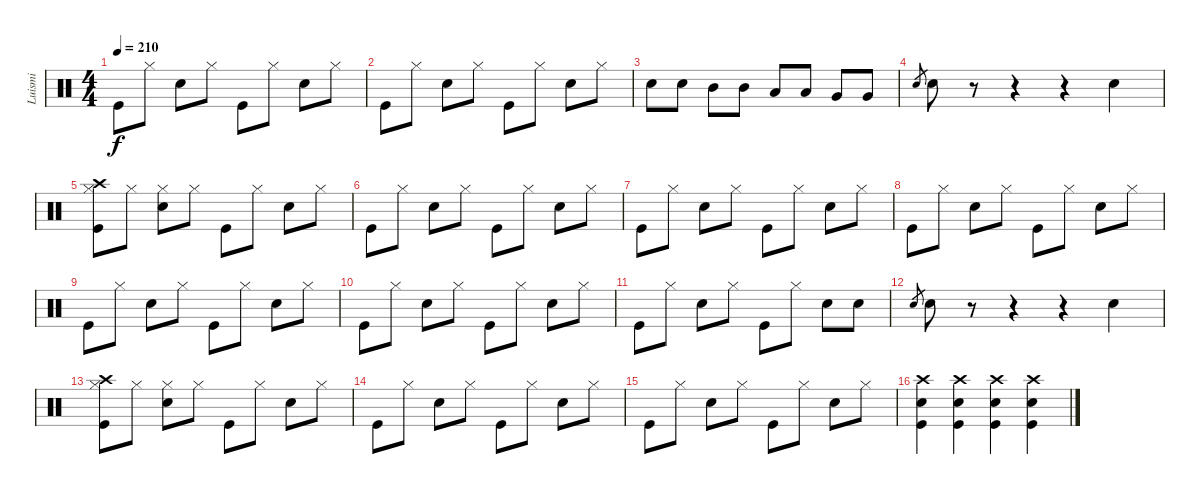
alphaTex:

\track ("Luismi" "Luismi") {instrument percussion}
\staff {score}
\articulation defaults
\ts (4 4)
\tempo 210
\clef neutral
\ks c "Kick (hit)".8{dy f} "Hi-Hat (closed)".8 "Snare (hit) 2".8 "Hi-Hat (closed)".8 "Kick (hit)".8 "Hi-Hat (closed)".8 "Snare (hit) 2".8 "Hi-Hat (closed)".8
|
"Kick (hit)".8 "Hi-Hat (closed)".8 "Snare (hit) 2".8 "Hi-Hat (closed)".8 "Kick (hit)".8 "Hi-Hat (closed)".8 "Snare (hit) 2".8 "Hi-Hat (closed)".8 |
"Snare (hit) 2".8 "Snare (hit) 2".8 "Mid Tom (hit)".8 "Mid Tom (hit)".8 "Low Tom (hit)".8 "Low Tom (hit)".8 "Very Low Tom (hit)".8 "Very Low Tom (hit)".8 |
"Snare (hit) 2".8{gr} "Snare (hit) 2".8 r.8 r.4 r.4 "Snare (hit) 2".4 |
("Kick (hit)" "Crash high (hit)" "Hi-Hat (closed)").8 "Hi-Hat (closed)".8 ("Snare (hit) 2" "Hi-Hat (closed)").8 "Hi-Hat (closed)".8 "Kick (hit)".8 "Hi-Hat (closed)".8 "Snare (hit) 2".8 "Hi-Hat (closed)".8 |
"Kick (hit)".8 "Hi-Hat (closed)".8 "Snare (hit) 2".8 "Hi-Hat (closed)".8 "Kick (hit)".8 "Hi-Hat (closed)".8 "Snare (hit) 2".8 "Hi-Hat (closed)".8 |
"Kick (hit)".8 "Hi-Hat (closed)".8 "Snare (hit) 2".8 "Hi-Hat (closed)".8 "Kick (hit)".8 "Hi-Hat (closed)".8 "Snare (hit) 2".8 "Hi-Hat (closed)".8 |
"Kick (hit)".8 "Hi-Hat (closed)".8 "Snare (hit) 2".8 "Hi-Hat (closed)".8 "Kick (hit)".8 "Hi-Hat (closed)".8 "Snare (hit) 2".8 "Hi-Hat (closed)".8 |
"Kick (hit)".8 "Hi-Hat (closed)".8 "Snare (hit) 2".8 "Hi-Hat (closed)".8 "Kick (hit)".8 "Hi-Hat (closed)".8 "Snare (hit) 2".8 "Hi-Hat (closed)".8 |
"Kick (hit)".8 "Hi-Hat (closed)".8 "Snare (hit) 2".8 "Hi-Hat (closed)".8 "Kick (hit)".8 "Hi-Hat (closed)".8 "Snare (hit) 2".8 "Hi-Hat (closed)".8 |
"Kick (hit)".8 "Hi-Hat (closed)".8 "Snare (hit) 2".8 "Hi-Hat (closed)".8 "Kick (hit)".8 "Hi-Hat (closed)".8 "Snare (hit) 2".8 "Snare (hit) 2".8 |
"Snare (hit) 2".8{gr} "Snare (hit) 2".8 r.8 r.4 r.4 "Snare (hit) 2".4 |
("Kick (hit)" "Crash high (hit)" "Hi-Hat (closed)").8 "Hi-Hat (closed)".8 ("Snare (hit) 2" "Hi-Hat (closed)").8 "Hi-Hat (closed)".8 "Kick (hit)".8 "Hi-Hat (closed)".8 "Snare (hit) 2".8 "Hi-Hat (closed)".8 |
"Kick (hit)".8 "Hi-Hat (closed)".8 "Snare (hit) 2".8 "Hi-Hat (closed)".8 "Kick (hit)".8 "Hi-Hat (closed)".8 "Snare (hit) 2".8 "Hi-Hat (closed)".8 |
"Kick (hit)".8 "Hi-Hat (closed)".8 "Snare (hit) 2".8 "Hi-Hat (closed)".8 "Kick (hit)".8 "Hi-Hat (closed)".8 "Snare (hit) 2".8 "Hi-Hat (closed)".8 |
("Snare (hit) 2" "Kick (hit)" "Crash high (hit)").4 ("Snare (hit) 2" "Kick (hit)" "Crash high (hit)").4 ("Snare (hit) 2" "Kick (hit)" "Crash high (hit)").4 ("Snare (hit) 2" "Kick (hit)" "Crash high (hit)").4
